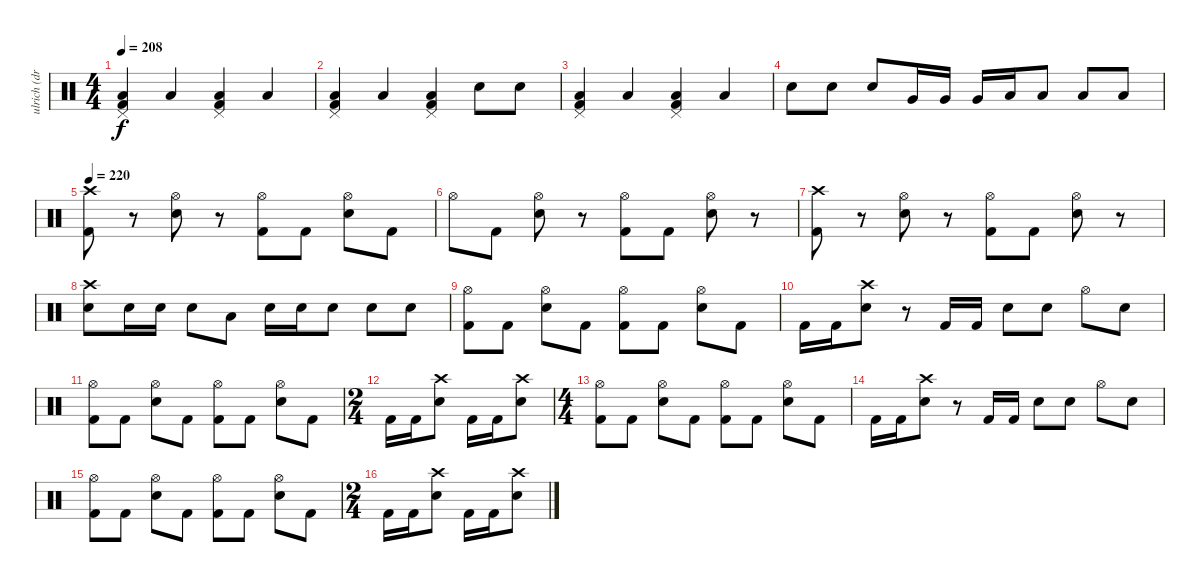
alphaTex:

\track ("ulrich (drums)" "ulrich (dr") {instrument percussion}
\staff {score}
\articulation defaults
\ts (4 4)
\tempo 208
\clef neutral
\ks c
("Pedal Hi-Hat (hit)" "Low Tom (hit)" "Kick (hit) 2").4{dy f} "Low Tom (hit)".4 ("Pedal Hi-Hat (hit)" "Low Tom (hit)" "Kick (hit) 2").4 "Low Tom (hit)".4 |
("Pedal Hi-Hat (hit)" "Low Tom (hit)" "Kick (hit) 2").4 "Low Tom (hit)".4 ("Pedal Hi-Hat (hit)" "Low Tom (hit)" "Kick (hit) 2").4 "Snare (hit) 2".8 "Snare (hit) 2".8 |
("Pedal Hi-Hat (hit)" "Low Tom (hit)" "Kick (hit) 2").4 "Low Tom (hit)".4 ("Pedal Hi-Hat (hit)" "Low Tom (hit)" "Kick (hit) 2").4 "Low Tom (hit)".4 |
"Snare (hit) 2".8 "Snare (hit) 2".8 "Snare (hit) 2".8 "Very Low Tom (hit)".16 "Very Low Tom (hit)".16 "Very Low Tom (hit)".16 "Low Tom (hit)".16 "Low Tom (hit)".8 "Low Tom (hit)".8 "Low Tom (hit)".8 |
\tempo 220
("Crash high (hit)" "Kick (hit) 2").8 r.8 ("Hi-Hat (open)" "Snare (hit) 2").8 r.8 ("Hi-Hat (open)" "Kick (hit) 2").8 "Kick (hit) 2".8 ("Hi-Hat (open)" "Snare (hit) 2").8 "Kick (hit) 2".8 |
"Hi-Hat (open)".8 "Kick (hit) 2".8 ("Hi-Hat (open)" "Snare (hit) 2").8 r.8 ("Hi-Hat (open)" "Kick (hit) 2").8 "Kick (hit) 2".8 ("Hi-Hat (open)" "Snare (hit) 2").8 r.8 |
("Crash high (hit)" "Kick (hit) 2").8 r.8 ("Hi-Hat (open)" "Snare (hit) 2").8 r.8 ("Hi-Hat (open)" "Kick (hit) 2").8 "Kick (hit) 2".8 ("Hi-Hat (open)" "Snare (hit) 2").8 r.8 |
("Crash high (hit)" "Snare (hit) 2").8 "Snare (hit) 2".16 "Snare (hit) 2".16 "Snare (hit) 2".8 "Low Tom (hit)".8 "Snare (hit) 2".16 "Snare (hit) 2".16 "Snare (hit) 2".8 "Snare (hit) 2".8 "Snare (hit) 2".8 |
("Hi-Hat (open)" "Kick (hit) 2").8 "Kick (hit) 2".8 ("Hi-Hat (open)" "Snare (hit) 2").8 "Kick (hit) 2".8 ("Hi-Hat (open)" "Kick (hit) 2").8 "Kick (hit) 2".8 ("Hi-Hat (open)" "Snare (hit) 2").8 "Kick (hit) 2".8 |
"Kick (hit) 2".16 "Kick (hit) 2".16 ("Crash high (hit)" "Snare (hit) 2").8 r.8 "Kick (hit) 2".16 "Kick (hit) 2".16 "Snare (hit) 2".8 "Snare (hit) 2".8 "Hi-Hat (open)".8 "Snare (hit) 2".8 |
("Hi-Hat (open)" "Kick (hit) 2").8 "Kick (hit) 2".8 ("Hi-Hat (open)" "Snare (hit) 2").8 "Kick (hit) 2".8 ("Hi-Hat (open)" "Kick (hit) 2").8 "Kick (hit) 2".8 ("Hi-Hat (open)" "Snare (hit) 2").8 "Kick (hit) 2".8 |
\ts (2 4)
"Kick (hit) 2".16 "Kick (hit) 2".16 ("Crash high (hit)" "Snare (hit) 2").8 "Kick (hit) 2".16 "Kick (hit) 2".16 ("Crash high (hit)" "Snare (hit) 2").8 |
\ts (4 4)
("Hi-Hat (open)" "Kick (hit) 2").8 "Kick (hit) 2".8 ("Hi-Hat (open)" "Snare (hit) 2").8 "Kick (hit) 2".8 ("Hi-Hat (open)" "Kick (hit) 2").8 "Kick (hit) 2".8 ("Hi-Hat (open)" "Snare (hit) 2").8 "Kick (hit) 2".8 |
"Kick (hit) 2".16 "Kick (hit) 2".16 ("Crash high (hit)" "Snare (hit) 2").8 r.8 "Kick (hit) 2".16 "Kick (hit) 2".16 "Snare (hit) 2".8 "Snare (hit) 2".8 "Hi-Hat (open)".8 "Snare (hit) 2".8 |
("Hi-Hat (open)" "Kick (hit) 2").8 "Kick (hit) 2".8 ("Hi-Hat (open)" "Snare (hit) 2").8 "Kick (hit) 2".8 ("Hi-Hat (open)" "Kick (hit) 2").8 "Kick (hit) 2".8 ("Hi-Hat (open)" "Snare (hit) 2").8 "Kick (hit) 2".8 |
\ts (2 4)
"Kick (hit) 2".16 "Kick (hit) 2".16 ("Crash high (hit)" "Snare (hit) 2").8 "Kick (hit) 2".16 "Kick (hit) 2".16 ("Crash high (hit)" "Snare (hit) 2").8
